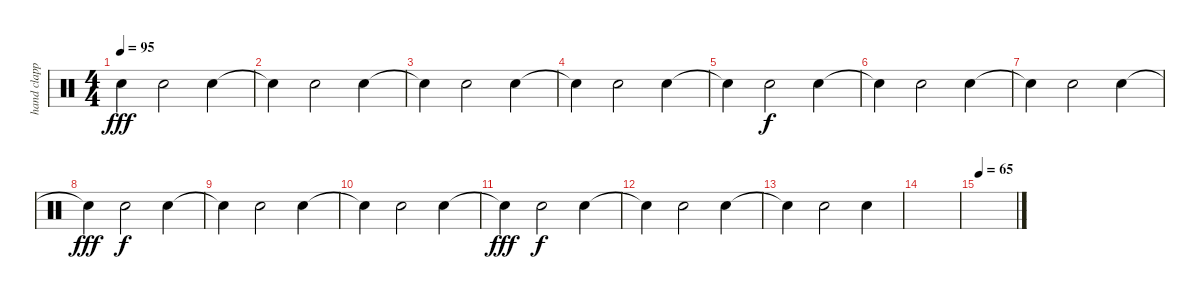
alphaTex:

\track ("hand clapping" "hand clapp") {instrument percussion}
\staff {score}
\articulation defaults
\ts (4 4)
\tempo 95
\clef neutral
\ks c "Snare (hit)"{t}.4{dy fff} "Hand Clap (hit)".2 "Hand Clap (hit)".4
|
"Snare (hit)"{t}.4 "Hand Clap (hit)".2 "Hand Clap (hit)".4 |
"Snare (hit)"{t}.4 "Hand Clap (hit)".2 "Hand Clap (hit)".4 |
"Snare (hit)"{t}.4 "Hand Clap (hit)".2 "Hand Clap (hit)".4 |
"Snare (hit)"{t}.4 "Hand Clap (hit)".2{dy f} "Hand Clap (hit)".4 |
"Snare (hit)"{t}.4 "Hand Clap (hit)".2 "Hand Clap (hit)".4 |
"Snare (hit)"{t}.4 "Hand Clap (hit)".2 "Hand Clap (hit)".4 |
"Snare (hit)"{t}.4{dy fff} "Hand Clap (hit)".2{dy f} "Hand Clap (hit)".4 |
"Snare (hit)"{t}.4 "Hand Clap (hit)".2 "Hand Clap (hit)".4 |
"Snare (hit)"{t}.4 "Hand Clap (hit)".2 "Hand Clap (hit)".4 |
"Snare (hit)"{t}.4{dy fff} "Hand Clap (hit)".2{dy f} "Hand Clap (hit)".4 |
"Snare (hit)"{t}.4 "Hand Clap (hit)".2 "Hand Clap (hit)".4 |
"Snare (hit)"{t}.4 "Hand Clap (hit)".2 "Hand Clap (hit)".4 |
|
\tempo 65
